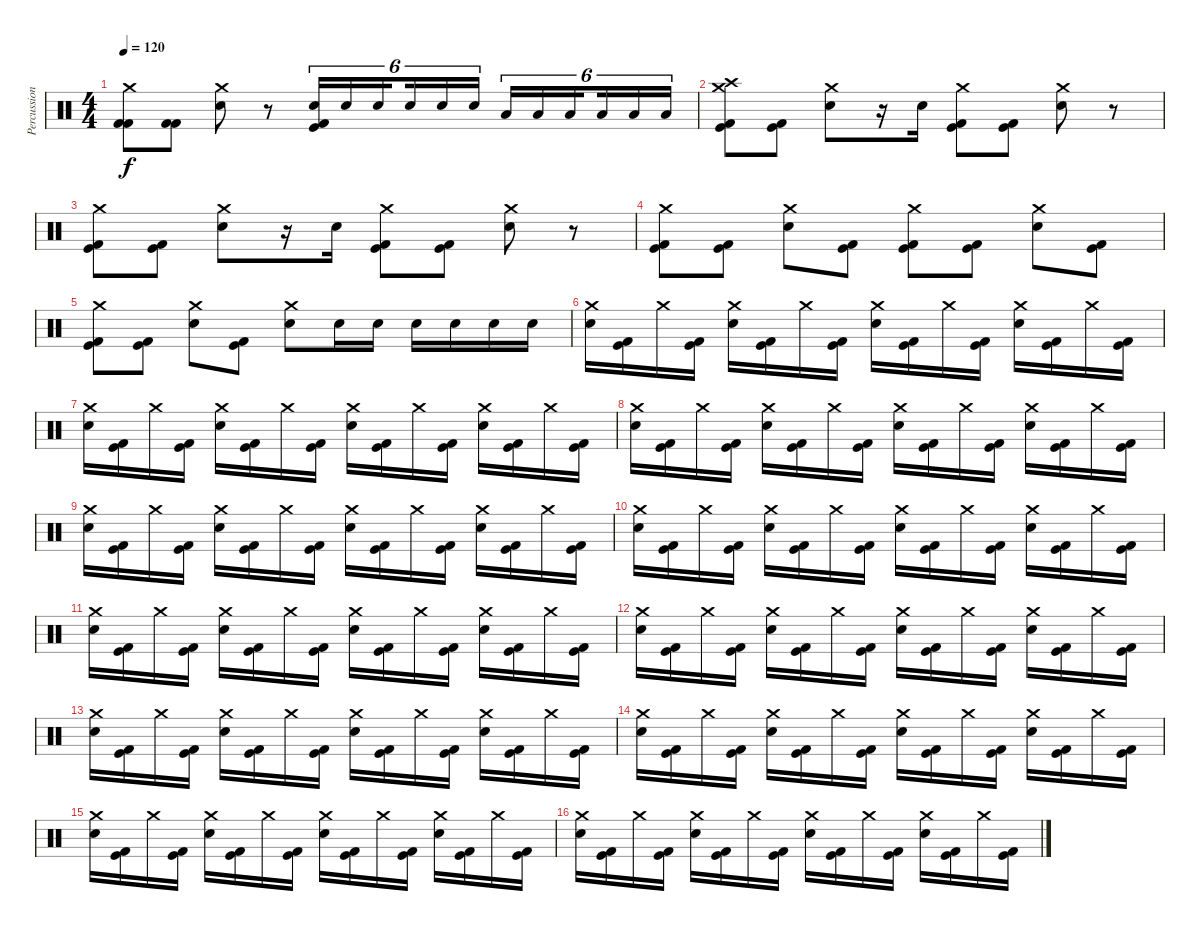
\track ("Percussion" "Percussion") {instrument percussion}
\staff {score}
\articulation defaults
\ts (4 4)
\tempo 120
\clef neutral
\ks c
("Crash medium (hit)" "Kick (hit) 2" "Kick (hit) 2").8{dy f} ("Kick (hit) 2" "Kick (hit) 2").8 ("Crash medium (hit)" "Electric Snare (hit)").8 r.8 ("Electric Snare (hit)" "Kick (hit)" "Kick (hit) 2").16{tu (6 4)} "Electric Snare (hit)".16{tu (6 4)} "Electric Snare (hit)".16{tu (6 4) beam splitsecondary} "Electric Snare (hit)".16{tu (6 4)} "Electric Snare (hit)".16{tu (6 4)} "Electric Snare (hit)".16{tu (6 4)} "Low Tom (hit)".16{tu (6 4)} "Low Tom (hit)".16{tu (6 4)} "Low Tom (hit)".16{tu (6 4) beam splitsecondary} "Low Tom (hit)".16{tu (6 4)} "Low Tom (hit)".16{tu (6 4)} "Low Tom (hit)".16{tu (6 4)} |
("Crash medium (hit)" "Crash high (hit)" "Kick (hit)" "Kick (hit) 2").8 ("Kick (hit)" "Kick (hit) 2").8 ("Crash medium (hit)" "Electric Snare (hit)").8 r.16 "Electric Snare (hit)".16 ("Crash medium (hit)" "Kick (hit)" "Kick (hit) 2").8 ("Kick (hit)" "Kick (hit) 2").8 ("Crash medium (hit)" "Electric Snare (hit)").8 r.8 |
("Crash medium (hit)" "Kick (hit)" "Kick (hit) 2").8 ("Kick (hit)" "Kick (hit) 2").8 ("Crash medium (hit)" "Electric Snare (hit)").8 r.16 "Electric Snare (hit)".16 ("Crash medium (hit)" "Kick (hit)" "Kick (hit) 2").8 ("Kick (hit)" "Kick (hit) 2").8 ("Crash medium (hit)" "Electric Snare (hit)").8 r.8 |
("Crash medium (hit)" "Kick (hit)" "Kick (hit) 2").8 ("Kick (hit)" "Kick (hit) 2").8 ("Crash medium (hit)" "Electric Snare (hit)").8 ("Kick (hit)" "Kick (hit) 2").8 ("Crash medium (hit)" "Kick (hit)" "Kick (hit) 2").8 ("Kick (hit)" "Kick (hit) 2").8 ("Crash medium (hit)" "Electric Snare (hit)").8 ("Kick (hit)" "Kick (hit) 2").8 |
("Crash medium (hit)" "Kick (hit)" "Kick (hit) 2").8 ("Kick (hit)" "Kick (hit) 2").8 ("Crash medium (hit)" "Electric Snare (hit)").8 ("Kick (hit)" "Kick (hit) 2").8 ("Crash medium (hit)" "Electric Snare (hit)").8 "Electric Snare (hit)".16 "Electric Snare (hit)".16 "Electric Snare (hit)".16 "Electric Snare (hit)".16 "Electric Snare (hit)".16 "Electric Snare (hit)".16 |
("Crash medium (hit)" "Electric Snare (hit)").16 ("Kick (hit)" "Kick (hit) 2").16 "Crash medium (hit)".16 ("Kick (hit)" "Kick (hit) 2").16 ("Crash medium (hit)" "Electric Snare (hit)").16 ("Kick (hit)" "Kick (hit) 2").16 "Crash medium (hit)".16 ("Kick (hit)" "Kick (hit) 2").16 ("Crash medium (hit)" "Electric Snare (hit)").16 ("Kick (hit)" "Kick (hit) 2").16 "Crash medium (hit)".16 ("Kick (hit)" "Kick (hit) 2").16 ("Crash medium (hit)" "Electric Snare (hit)").16 ("Kick (hit)" "Kick (hit) 2").16 "Crash medium (hit)".16 ("Kick (hit)" "Kick (hit) 2").16 |
("Crash medium (hit)" "Electric Snare (hit)").16 ("Kick (hit)" "Kick (hit) 2").16 "Crash medium (hit)".16 ("Kick (hit)" "Kick (hit) 2").16 ("Crash medium (hit)" "Electric Snare (hit)").16 ("Kick (hit)" "Kick (hit) 2").16 "Crash medium (hit)".16 ("Kick (hit)" "Kick (hit) 2").16 ("Crash medium (hit)" "Electric Snare (hit)").16 ("Kick (hit)" "Kick (hit) 2").16 "Crash medium (hit)".16 ("Kick (hit)" "Kick (hit) 2").16 ("Crash medium (hit)" "Electric Snare (hit)").16 ("Kick (hit)" "Kick (hit) 2").16 "Crash medium (hit)".16 ("Kick (hit)" "Kick (hit) 2").16 |
("Crash medium (hit)" "Electric Snare (hit)").16 ("Kick (hit)" "Kick (hit) 2").16 "Crash medium (hit)".16 ("Kick (hit)" "Kick (hit) 2").16 ("Crash medium (hit)" "Electric Snare (hit)").16 ("Kick (hit)" "Kick (hit) 2").16 "Crash medium (hit)".16 ("Kick (hit)" "Kick (hit) 2").16 ("Crash medium (hit)" "Electric Snare (hit)").16 ("Kick (hit)" "Kick (hit) 2").16 "Crash medium (hit)".16 ("Kick (hit)" "Kick (hit) 2").16 ("Crash medium (hit)" "Electric Snare (hit)").16 ("Kick (hit)" "Kick (hit) 2").16 "Crash medium (hit)".16 ("Kick (hit)" "Kick (hit) 2").16 |
("Crash medium (hit)" "Electric Snare (hit)").16 ("Kick (hit)" "Kick (hit) 2").16 "Crash medium (hit)".16 ("Kick (hit)" "Kick (hit) 2").16 ("Crash medium (hit)" "Electric Snare (hit)").16 ("Kick (hit)" "Kick (hit) 2").16 "Crash medium (hit)".16 ("Kick (hit)" "Kick (hit) 2").16 ("Crash medium (hit)" "Electric Snare (hit)").16 ("Kick (hit)" "Kick (hit) 2").16 "Crash medium (hit)".16 ("Kick (hit)" "Kick (hit) 2").16 ("Crash medium (hit)" "Electric Snare (hit)").16 ("Kick (hit)" "Kick (hit) 2").16 "Crash medium (hit)".16 ("Kick (hit)" "Kick (hit) 2").16 |
("Crash medium (hit)" "Electric Snare (hit)").16 ("Kick (hit)" "Kick (hit) 2").16 "Crash medium (hit)".16 ("Kick (hit)" "Kick (hit) 2").16 ("Crash medium (hit)" "Electric Snare (hit)").16 ("Kick (hit)" "Kick (hit) 2").16 "Crash medium (hit)".16 ("Kick (hit)" "Kick (hit) 2").16 ("Crash medium (hit)" "Electric Snare (hit)").16 ("Kick (hit)" "Kick (hit) 2").16 "Crash medium (hit)".16 ("Kick (hit)" "Kick (hit) 2").16 ("Crash medium (hit)" "Electric Snare (hit)").16 ("Kick (hit)" "Kick (hit) 2").16 "Crash medium (hit)".16 ("Kick (hit)" "Kick (hit) 2").16 |
("Crash medium (hit)" "Electric Snare (hit)").16 ("Kick (hit)" "Kick (hit) 2").16 "Crash medium (hit)".16 ("Kick (hit)" "Kick (hit) 2").16 ("Crash medium (hit)" "Electric Snare (hit)").16 ("Kick (hit)" "Kick (hit) 2").16 "Crash medium (hit)".16 ("Kick (hit)" "Kick (hit) 2").16 ("Crash medium (hit)" "Electric Snare (hit)").16 ("Kick (hit)" "Kick (hit) 2").16 "Crash medium (hit)".16 ("Kick (hit)" "Kick (hit) 2").16 ("Crash medium (hit)" "Electric Snare (hit)").16 ("Kick (hit)" "Kick (hit) 2").16 "Crash medium (hit)".16 ("Kick (hit)" "Kick (hit) 2").16 |
("Crash medium (hit)" "Electric Snare (hit)").16 ("Kick (hit)" "Kick (hit) 2").16 "Crash medium (hit)".16 ("Kick (hit)" "Kick (hit) 2").16 ("Crash medium (hit)" "Electric Snare (hit)").16 ("Kick (hit)" "Kick (hit) 2").16 "Crash medium (hit)".16 ("Kick (hit)" "Kick (hit) 2").16 ("Crash medium (hit)" "Electric Snare (hit)").16 ("Kick (hit)" "Kick (hit) 2").16 "Crash medium (hit)".16 ("Kick (hit)" "Kick (hit) 2").16 ("Crash medium (hit)" "Electric Snare (hit)").16 ("Kick (hit)" "Kick (hit) 2").16 "Crash medium (hit)".16 ("Kick (hit)" "Kick (hit) 2").16 |
("Crash medium (hit)" "Electric Snare (hit)").16 ("Kick (hit)" "Kick (hit) 2").16 "Crash medium (hit)".16 ("Kick (hit)" "Kick (hit) 2").16 ("Crash medium (hit)" "Electric Snare (hit)").16 ("Kick (hit)" "Kick (hit) 2").16 "Crash medium (hit)".16 ("Kick (hit)" "Kick (hit) 2").16 ("Crash medium (hit)" "Electric Snare (hit)").16 ("Kick (hit)" "Kick (hit) 2").16 "Crash medium (hit)".16 ("Kick (hit)" "Kick (hit) 2").16 ("Crash medium (hit)" "Electric Snare (hit)").16 ("Kick (hit)" "Kick (hit) 2").16 "Crash medium (hit)".16 ("Kick (hit)" "Kick (hit) 2").16 |
("Crash medium (hit)" "Electric Snare (hit)").16 ("Kick (hit)" "Kick (hit) 2").16 "Crash medium (hit)".16 ("Kick (hit)" "Kick (hit) 2").16 ("Crash medium (hit)" "Electric Snare (hit)").16 ("Kick (hit)" "Kick (hit) 2").16 "Crash medium (hit)".16 ("Kick (hit)" "Kick (hit) 2").16 ("Crash medium (hit)" "Electric Snare (hit)").16 ("Kick (hit)" "Kick (hit) 2").16 "Crash medium (hit)".16 ("Kick (hit)" "Kick (hit) 2").16 ("Crash medium (hit)" "Electric Snare (hit)").16 ("Kick (hit)" "Kick (hit) 2").16 "Crash medium (hit)".16 ("Kick (hit)" "Kick (hit) 2").16 |
("Crash medium (hit)" "Electric Snare (hit)").16 ("Kick (hit)" "Kick (hit) 2").16 "Crash medium (hit)".16 ("Kick (hit)" "Kick (hit) 2").16 ("Crash medium (hit)" "Electric Snare (hit)").16 ("Kick (hit)" "Kick (hit) 2").16 "Crash medium (hit)".16 ("Kick (hit)" "Kick (hit) 2").16 ("Crash medium (hit)" "Electric Snare (hit)").16 ("Kick (hit)" "Kick (hit) 2").16 "Crash medium (hit)".16 ("Kick (hit)" "Kick (hit) 2").16 ("Crash medium (hit)" "Electric Snare (hit)").16 ("Kick (hit)" "Kick (hit) 2").16 "Crash medium (hit)".16 ("Kick (hit)" "Kick (hit) 2").16 |
("Crash medium (hit)" "Electric Snare (hit)").16 ("Kick (hit)" "Kick (hit) 2").16 "Crash medium (hit)".16 ("Kick (hit)" "Kick (hit) 2").16 ("Crash medium (hit)" "Electric Snare (hit)").16 ("Kick (hit)" "Kick (hit) 2").16 "Crash medium (hit)".16 ("Kick (hit)" "Kick (hit) 2").16 ("Crash medium (hit)" "Electric Snare (hit)").16 ("Kick (hit)" "Kick (hit) 2").16 "Crash medium (hit)".16 ("Kick (hit)" "Kick (hit) 2").16 ("Crash medium (hit)" "Electric Snare (hit)").16 ("Kick (hit)" "Kick (hit) 2").16 "Crash medium (hit)".16 ("Kick (hit)" "Kick (hit) 2").16
